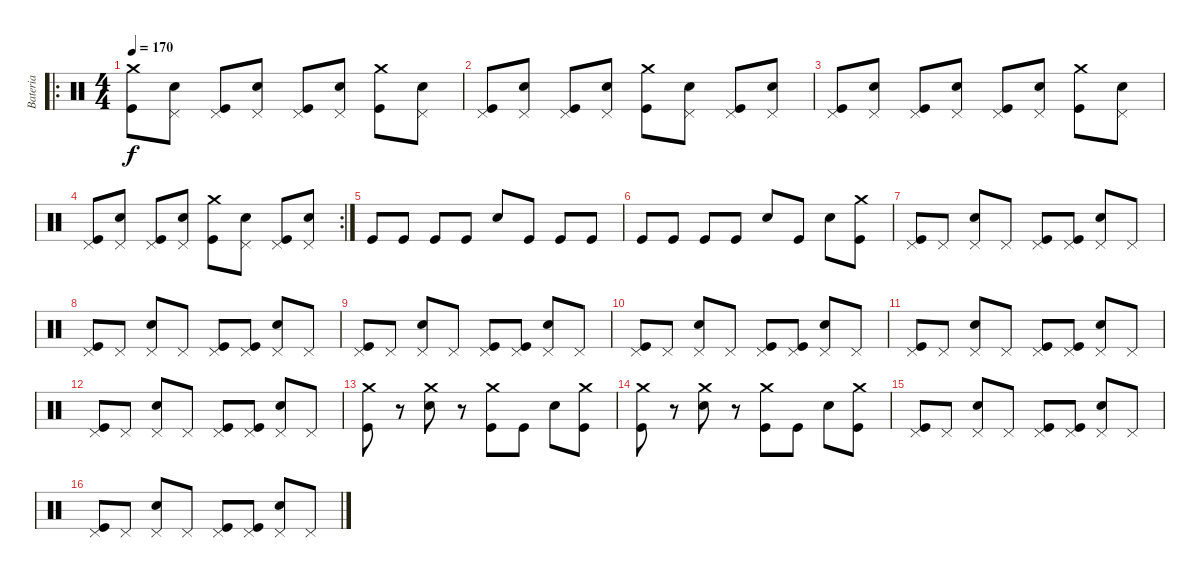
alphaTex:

\track ("Bateria" "Bateria") {instrument percussion}
\staff {score}
\articulation defaults
\ro
\ts (4 4)
\tempo 170
\clef neutral
\ks c
("Crash medium (hit)" "Kick (hit)").8{dy f} ("Pedal Hi-Hat (hit)" "Electric Snare (hit)").8 ("Pedal Hi-Hat (hit)" "Kick (hit)").8 ("Pedal Hi-Hat (hit)" "Electric Snare (hit)").8 ("Pedal Hi-Hat (hit)" "Kick (hit)").8 ("Pedal Hi-Hat (hit)" "Electric Snare (hit)").8 ("Crash medium (hit)" "Kick (hit)").8 ("Pedal Hi-Hat (hit)" "Electric Snare (hit)").8 |
("Pedal Hi-Hat (hit)" "Kick (hit)").8 ("Pedal Hi-Hat (hit)" "Electric Snare (hit)").8 ("Pedal Hi-Hat (hit)" "Kick (hit)").8 ("Pedal Hi-Hat (hit)" "Electric Snare (hit)").8 ("Crash medium (hit)" "Kick (hit)").8 ("Pedal Hi-Hat (hit)" "Electric Snare (hit)").8 ("Pedal Hi-Hat (hit)" "Kick (hit)").8 ("Pedal Hi-Hat (hit)" "Electric Snare (hit)").8 |
("Pedal Hi-Hat (hit)" "Kick (hit)").8 ("Pedal Hi-Hat (hit)" "Electric Snare (hit)").8 ("Pedal Hi-Hat (hit)" "Kick (hit)").8 ("Pedal Hi-Hat (hit)" "Electric Snare (hit)").8 ("Pedal Hi-Hat (hit)" "Kick (hit)").8 ("Pedal Hi-Hat (hit)" "Electric Snare (hit)").8 ("Crash medium (hit)" "Kick (hit)").8 ("Pedal Hi-Hat (hit)" "Electric Snare (hit)").8 |
\rc 2
("Pedal Hi-Hat (hit)" "Kick (hit)").8 ("Pedal Hi-Hat (hit)" "Electric Snare (hit)").8 ("Pedal Hi-Hat (hit)" "Kick (hit)").8 ("Pedal Hi-Hat (hit)" "Electric Snare (hit)").8 ("Crash medium (hit)" "Kick (hit)").8 ("Pedal Hi-Hat (hit)" "Electric Snare (hit)").8 ("Pedal Hi-Hat (hit)" "Kick (hit)").8 ("Pedal Hi-Hat (hit)" "Electric Snare (hit)").8 |
"Kick (hit)".8 "Kick (hit)".8 "Kick (hit)".8 "Kick (hit)".8 "Electric Snare (hit)".8 "Kick (hit)".8 "Kick (hit)".8 "Kick (hit)".8 |
"Kick (hit)".8 "Kick (hit)".8 "Kick (hit)".8 "Kick (hit)".8 "Electric Snare (hit)".8 "Kick (hit)".8 "Electric Snare (hit)".8 ("Crash medium (hit)" "Kick (hit)").8 |
("Pedal Hi-Hat (hit)" "Kick (hit)").8 "Pedal Hi-Hat (hit)".8 ("Pedal Hi-Hat (hit)" "Electric Snare (hit)").8 "Pedal Hi-Hat (hit)".8 ("Pedal Hi-Hat (hit)" "Kick (hit)").8 ("Pedal Hi-Hat (hit)" "Kick (hit)").8 ("Pedal Hi-Hat (hit)" "Electric Snare (hit)").8 "Pedal Hi-Hat (hit)".8 |
("Pedal Hi-Hat (hit)" "Kick (hit)").8 "Pedal Hi-Hat (hit)".8 ("Pedal Hi-Hat (hit)" "Electric Snare (hit)").8 "Pedal Hi-Hat (hit)".8 ("Pedal Hi-Hat (hit)" "Kick (hit)").8 ("Pedal Hi-Hat (hit)" "Kick (hit)").8 ("Pedal Hi-Hat (hit)" "Electric Snare (hit)").8 "Pedal Hi-Hat (hit)".8 |
("Pedal Hi-Hat (hit)" "Kick (hit)").8 "Pedal Hi-Hat (hit)".8 ("Pedal Hi-Hat (hit)" "Electric Snare (hit)").8 "Pedal Hi-Hat (hit)".8 ("Pedal Hi-Hat (hit)" "Kick (hit)").8 ("Pedal Hi-Hat (hit)" "Kick (hit)").8 ("Pedal Hi-Hat (hit)" "Electric Snare (hit)").8 "Pedal Hi-Hat (hit)".8 |
("Pedal Hi-Hat (hit)" "Kick (hit)").8 "Pedal Hi-Hat (hit)".8 ("Pedal Hi-Hat (hit)" "Electric Snare (hit)").8 "Pedal Hi-Hat (hit)".8 ("Pedal Hi-Hat (hit)" "Kick (hit)").8 ("Pedal Hi-Hat (hit)" "Kick (hit)").8 ("Pedal Hi-Hat (hit)" "Electric Snare (hit)").8 "Pedal Hi-Hat (hit)".8 |
("Pedal Hi-Hat (hit)" "Kick (hit)").8 "Pedal Hi-Hat (hit)".8 ("Pedal Hi-Hat (hit)" "Electric Snare (hit)").8 "Pedal Hi-Hat (hit)".8 ("Pedal Hi-Hat (hit)" "Kick (hit)").8 ("Pedal Hi-Hat (hit)" "Kick (hit)").8 ("Pedal Hi-Hat (hit)" "Electric Snare (hit)").8 "Pedal Hi-Hat (hit)".8 |
("Pedal Hi-Hat (hit)" "Kick (hit)").8 "Pedal Hi-Hat (hit)".8 ("Pedal Hi-Hat (hit)" "Electric Snare (hit)").8 "Pedal Hi-Hat (hit)".8 ("Pedal Hi-Hat (hit)" "Kick (hit)").8 ("Pedal Hi-Hat (hit)" "Kick (hit)").8 ("Pedal Hi-Hat (hit)" "Electric Snare (hit)").8 "Pedal Hi-Hat (hit)".8 |
("Crash medium (hit)" "Kick (hit)").8 r.8 ("Crash medium (hit)" "Electric Snare (hit)").8 r.8 ("Crash medium (hit)" "Kick (hit)").8 "Kick (hit)".8 "Electric Snare (hit)".8 ("Crash medium (hit)" "Kick (hit)").8 |
("Crash medium (hit)" "Kick (hit)").8 r.8 ("Crash medium (hit)" "Electric Snare (hit)").8 r.8 ("Crash medium (hit)" "Kick (hit)").8 "Kick (hit)".8 "Electric Snare (hit)".8 ("Crash medium (hit)" "Kick (hit)").8 |
("Pedal Hi-Hat (hit)" "Kick (hit)").8 "Pedal Hi-Hat (hit)".8 ("Pedal Hi-Hat (hit)" "Electric Snare (hit)").8 "Pedal Hi-Hat (hit)".8 ("Pedal Hi-Hat (hit)" "Kick (hit)").8 ("Pedal Hi-Hat (hit)" "Kick (hit)").8 ("Pedal Hi-Hat (hit)" "Electric Snare (hit)").8 "Pedal Hi-Hat (hit)".8 |
("Pedal Hi-Hat (hit)" "Kick (hit)").8 "Pedal Hi-Hat (hit)".8 ("Pedal Hi-Hat (hit)" "Electric Snare (hit)").8 "Pedal Hi-Hat (hit)".8 ("Pedal Hi-Hat (hit)" "Kick (hit)").8 ("Pedal Hi-Hat (hit)" "Kick (hit)").8 ("Pedal Hi-Hat (hit)" "Electric Snare (hit)").8 "Pedal Hi-Hat (hit)".8
